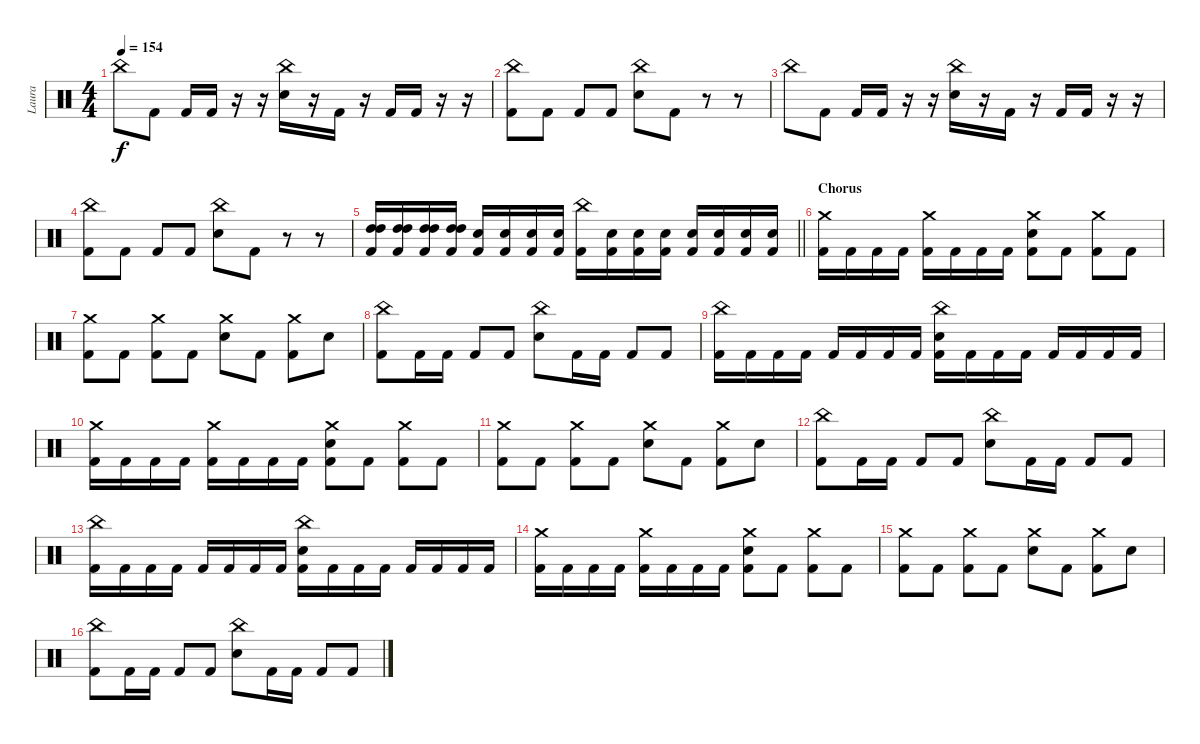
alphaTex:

\track ("Laura" "Laura") {instrument percussion}
\staff {score}
\articulation defaults
\ts (4 4)
\tempo 154
\clef neutral
\ks c "China (hit)".8{dy f} "Kick (hit) 2".8 "Kick (hit) 2".16 "Kick (hit) 2".16
r.16 r.16 ("China (hit)" "Electric Snare (hit)").16 r.16 "Kick (hit) 2".16 r.16 "Kick (hit) 2".16 "Kick (hit) 2".16 r.16 r.16 |
("China (hit)" "Kick (hit) 2").8 "Kick (hit) 2".8 "Kick (hit) 2".8 "Kick (hit) 2".8 ("China (hit)" "Electric Snare (hit)").8 "Kick (hit) 2".8 r.8 r.8 |
"China (hit)".8 "Kick (hit) 2".8 "Kick (hit) 2".16 "Kick (hit) 2".16 r.16 r.16 ("China (hit)" "Electric Snare (hit)").16 r.16 "Kick (hit) 2".16 r.16 "Kick (hit) 2".16 "Kick (hit) 2".16 r.16 r.16 |
("China (hit)" "Kick (hit) 2").8 "Kick (hit) 2".8 "Kick (hit) 2".8 "Kick (hit) 2".8 ("China (hit)" "Electric Snare (hit)").8 "Kick (hit) 2".8 r.8 r.8 |
\barLineRight lightlight
("High Tom (hit)" "High Tom (hit)" "Kick (hit) 2").16 ("High Tom (hit)" "High Tom (hit)" "Kick (hit) 2").16 ("High Tom (hit)" "High Tom (hit)" "Kick (hit) 2").16 ("High Tom (hit)" "High Tom (hit)" "Kick (hit) 2").16 ("Electric Snare (hit)" "Kick (hit) 2").16 ("Electric Snare (hit)" "Kick (hit) 2").16 ("Electric Snare (hit)" "Kick (hit) 2").16 ("Electric Snare (hit)" "Kick (hit) 2").16 ("China (hit)" "Kick (hit) 2").16 ("Electric Snare (hit)" "Kick (hit) 2").16 ("Electric Snare (hit)" "Kick (hit) 2").16 ("Electric Snare (hit)" "Kick (hit) 2").16 ("Electric Snare (hit)" "Kick (hit) 2").16 ("Electric Snare (hit)" "Kick (hit) 2").16 ("Electric Snare (hit)" "Kick (hit) 2").16 ("Electric Snare (hit)" "Kick (hit) 2").16 |
\section ("" "Chorus")
("Crash medium (hit)" "Kick (hit) 2").16 "Kick (hit) 2".16 "Kick (hit) 2".16 "Kick (hit) 2".16 ("Crash medium (hit)" "Kick (hit) 2").16 "Kick (hit) 2".16 "Kick (hit) 2".16 "Kick (hit) 2".16 ("Crash medium (hit)" "Electric Snare (hit)" "Kick (hit) 2").8 "Kick (hit) 2".8 ("Crash medium (hit)" "Kick (hit) 2").8 "Kick (hit) 2".8 |
("Crash medium (hit)" "Kick (hit) 2").8 "Kick (hit) 2".8 ("Crash medium (hit)" "Kick (hit) 2").8 "Kick (hit) 2".8 ("Crash medium (hit)" "Electric Snare (hit)").8 "Kick (hit) 2".8 ("Crash medium (hit)" "Kick (hit) 2").8 "Electric Snare (hit)".8 |
("China (hit)" "Kick (hit) 2").8 "Kick (hit) 2".16 "Kick (hit) 2".16 "Kick (hit) 2".8 "Kick (hit) 2".8 ("China (hit)" "Electric Snare (hit)").8 "Kick (hit) 2".16 "Kick (hit) 2".16 "Kick (hit) 2".8 "Kick (hit) 2".8 |
("China (hit)" "Kick (hit) 2").16 "Kick (hit) 2".16 "Kick (hit) 2".16 "Kick (hit) 2".16 "Kick (hit) 2".16 "Kick (hit) 2".16 "Kick (hit) 2".16 "Kick (hit) 2".16 ("China (hit)" "Electric Snare (hit)" "Kick (hit) 2").16 "Kick (hit) 2".16 "Kick (hit) 2".16 "Kick (hit) 2".16 "Kick (hit) 2".16 "Kick (hit) 2".16 "Kick (hit) 2".16 "Kick (hit) 2".16 |
("Crash medium (hit)" "Kick (hit) 2").16 "Kick (hit) 2".16 "Kick (hit) 2".16 "Kick (hit) 2".16 ("Crash medium (hit)" "Kick (hit) 2").16 "Kick (hit) 2".16 "Kick (hit) 2".16 "Kick (hit) 2".16 ("Crash medium (hit)" "Electric Snare (hit)" "Kick (hit) 2").8 "Kick (hit) 2".8 ("Crash medium (hit)" "Kick (hit) 2").8 "Kick (hit) 2".8 |
("Crash medium (hit)" "Kick (hit) 2").8 "Kick (hit) 2".8 ("Crash medium (hit)" "Kick (hit) 2").8 "Kick (hit) 2".8 ("Crash medium (hit)" "Electric Snare (hit)").8 "Kick (hit) 2".8 ("Crash medium (hit)" "Kick (hit) 2").8 "Electric Snare (hit)".8 |
("China (hit)" "Kick (hit) 2").8 "Kick (hit) 2".16 "Kick (hit) 2".16 "Kick (hit) 2".8 "Kick (hit) 2".8 ("China (hit)" "Electric Snare (hit)").8 "Kick (hit) 2".16 "Kick (hit) 2".16 "Kick (hit) 2".8 "Kick (hit) 2".8 |
("China (hit)" "Kick (hit) 2").16 "Kick (hit) 2".16 "Kick (hit) 2".16 "Kick (hit) 2".16 "Kick (hit) 2".16 "Kick (hit) 2".16 "Kick (hit) 2".16 "Kick (hit) 2".16 ("China (hit)" "Electric Snare (hit)" "Kick (hit) 2").16 "Kick (hit) 2".16 "Kick (hit) 2".16 "Kick (hit) 2".16 "Kick (hit) 2".16 "Kick (hit) 2".16 "Kick (hit) 2".16 "Kick (hit) 2".16 |
("Crash medium (hit)" "Kick (hit) 2").16 "Kick (hit) 2".16 "Kick (hit) 2".16 "Kick (hit) 2".16 ("Crash medium (hit)" "Kick (hit) 2").16 "Kick (hit) 2".16 "Kick (hit) 2".16 "Kick (hit) 2".16 ("Crash medium (hit)" "Electric Snare (hit)" "Kick (hit) 2").8 "Kick (hit) 2".8 ("Crash medium (hit)" "Kick (hit) 2").8 "Kick (hit) 2".8 |
("Crash medium (hit)" "Kick (hit) 2").8 "Kick (hit) 2".8 ("Crash medium (hit)" "Kick (hit) 2").8 "Kick (hit) 2".8 ("Crash medium (hit)" "Electric Snare (hit)").8 "Kick (hit) 2".8 ("Crash medium (hit)" "Kick (hit) 2").8 "Electric Snare (hit)".8 |
("China (hit)" "Kick (hit) 2").8 "Kick (hit) 2".16 "Kick (hit) 2".16 "Kick (hit) 2".8 "Kick (hit) 2".8 ("China (hit)" "Electric Snare (hit)").8 "Kick (hit) 2".16 "Kick (hit) 2".16 "Kick (hit) 2".8 "Kick (hit) 2".8
